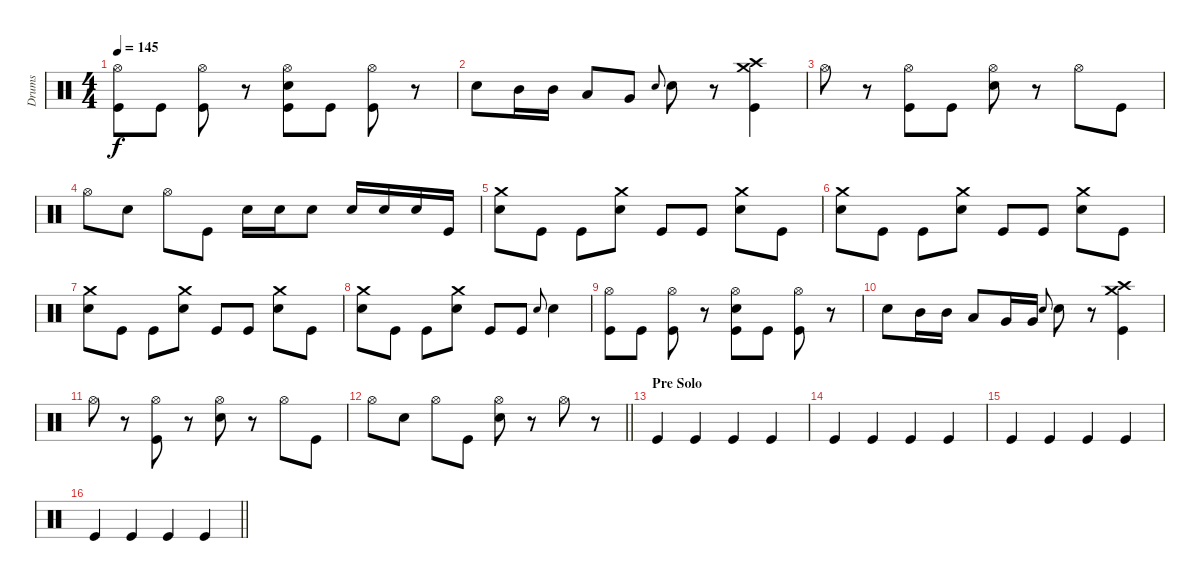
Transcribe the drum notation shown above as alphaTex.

\track ("Drums" "Drums") {instrument percussion}
\staff {score}
\articulation defaults
\ts (4 4)
\tempo 145
\clef neutral
\ks c
("Hi-Hat (open)" "Kick (hit)").8{dy f} "Kick (hit)".8 ("Hi-Hat (open)" "Kick (hit)").8 r.8 ("Hi-Hat (open)" "Snare (hit) 2" "Kick (hit)").8 "Kick (hit)".8 ("Hi-Hat (open)" "Kick (hit)").8 r.8 |
"Snare (hit) 2".8 "Mid Tom (hit)".16 "Mid Tom (hit)".16 "Low Tom (hit)".8 "Very Low Tom (hit)".8 "Snare (hit) 2".8{gr onbeat} "Snare (hit) 2".8 r.8 ("Crash medium (hit)" "Crash high (hit)" "Kick (hit)").4 |
"Hi-Hat (open)".8 r.8 ("Hi-Hat (open)" "Kick (hit)").8 "Kick (hit)".8 ("Hi-Hat (open)" "Snare (hit) 2").8 r.8 "Hi-Hat (open)".8 "Kick (hit)".8 |
"Hi-Hat (open)".8 "Snare (hit) 2".8 "Hi-Hat (open)".8 "Kick (hit)".8 "Snare (hit) 2".16 "Snare (hit) 2".16 "Snare (hit) 2".8 "Snare (hit) 2".16 "Snare (hit) 2".16 "Snare (hit) 2".16 "Kick (hit)".16 |
("Crash medium (hit)" "Snare (hit) 2").8 "Kick (hit)".8 "Kick (hit)".8 ("Crash medium (hit)" "Snare (hit) 2").8 "Kick (hit)".8 "Kick (hit)".8 ("Crash medium (hit)" "Snare (hit) 2").8 "Kick (hit)".8 |
("Crash medium (hit)" "Snare (hit) 2").8 "Kick (hit)".8 "Kick (hit)".8 ("Crash medium (hit)" "Snare (hit) 2").8 "Kick (hit)".8 "Kick (hit)".8 ("Crash medium (hit)" "Snare (hit) 2").8 "Kick (hit)".8 |
("Crash medium (hit)" "Snare (hit) 2").8 "Kick (hit)".8 "Kick (hit)".8 ("Crash medium (hit)" "Snare (hit) 2").8 "Kick (hit)".8 "Kick (hit)".8 ("Crash medium (hit)" "Snare (hit) 2").8 "Kick (hit)".8 |
("Crash medium (hit)" "Snare (hit) 2").8 "Kick (hit)".8 "Kick (hit)".8 ("Crash medium (hit)" "Snare (hit) 2").8 "Kick (hit)".8 "Kick (hit)".8 "Snare (hit) 2".8{gr onbeat} "Snare (hit) 2".4 |
("Hi-Hat (open)" "Kick (hit)").8 "Kick (hit)".8 ("Hi-Hat (open)" "Kick (hit)").8 r.8 ("Hi-Hat (open)" "Snare (hit) 2" "Kick (hit)").8 "Kick (hit)".8 ("Hi-Hat (open)" "Kick (hit)").8 r.8 |
"Snare (hit) 2".8 "Mid Tom (hit)".16 "Mid Tom (hit)".16 "Low Tom (hit)".8 "Very Low Tom (hit)".16 "Very Low Tom (hit)".16 "Snare (hit) 2".8{gr onbeat} "Snare (hit) 2".8 r.8 ("Crash medium (hit)" "Crash high (hit)" "Kick (hit)").4 |
"Hi-Hat (open)".8 r.8 ("Hi-Hat (open)" "Kick (hit)").8 r.8 ("Hi-Hat (open)" "Snare (hit) 2").8 r.8 "Hi-Hat (open)".8 "Kick (hit)".8 |
\barLineRight lightlight "Hi-Hat (open)".8 "Snare (hit) 2".8 "Hi-Hat (open)".8 "Kick (hit)".8
("Hi-Hat (open)" "Snare (hit) 2").8 r.8 "Hi-Hat (open)".8 r.8 |
\section ("" "Pre Solo")
"Kick (hit)".4 "Kick (hit)".4 "Kick (hit)".4 "Kick (hit)".4 |
"Kick (hit)".4 "Kick (hit)".4 "Kick (hit)".4 "Kick (hit)".4 |
"Kick (hit)".4 "Kick (hit)".4 "Kick (hit)".4 "Kick (hit)".4 |
\barLineRight lightlight "Kick (hit)".4 "Kick (hit)".4 "Kick (hit)".4 "Kick (hit)".4
